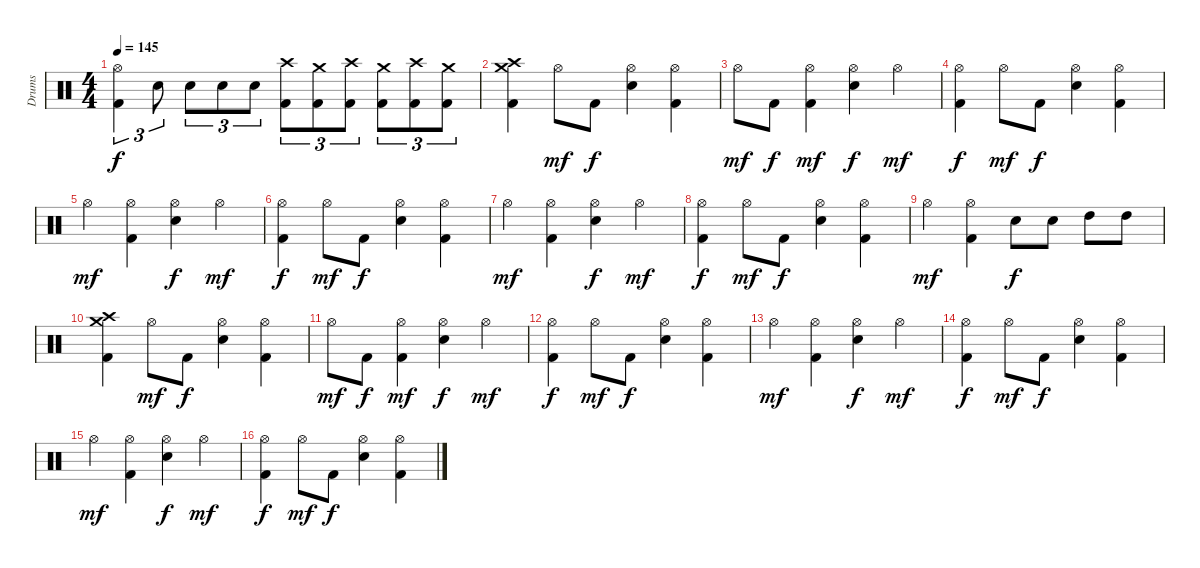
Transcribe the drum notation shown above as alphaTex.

\track ("Drums" "Drums") {instrument percussion}
\staff {score}
\articulation defaults
\ts (4 4)
\tempo 145
\clef neutral
\ks c
("Hi-Hat (open)" "Kick (hit) 2").4{tu (3 2) dy f} "Electric Snare (hit)".8{tu (3 2)} "Electric Snare (hit)".8{tu (3 2)} "Electric Snare (hit)".8{tu (3 2)} "Electric Snare (hit)".8{tu (3 2)} ("Crash high (hit)" "Kick (hit) 2").8{tu (3 2)} ("Crash medium (hit)" "Kick (hit) 2").8{tu (3 2)} ("Crash high (hit)" "Kick (hit) 2").8{tu (3 2)} ("Crash medium (hit)" "Kick (hit) 2").8{tu (3 2)} ("Crash high (hit)" "Kick (hit) 2").8{tu (3 2)} ("Crash medium (hit)" "Kick (hit) 2").8{tu (3 2)} |
("Crash high (hit)" "Crash medium (hit)" "Kick (hit) 2").4 "Hi-Hat (open)".8{dy mf} "Kick (hit) 2".8{dy f} ("Hi-Hat (open)" "Electric Snare (hit)").4 ("Hi-Hat (open)" "Kick (hit) 2").4 |
"Hi-Hat (open)".8{dy mf} "Kick (hit) 2".8{dy f} ("Hi-Hat (open)" "Kick (hit) 2").4{dy mf} ("Hi-Hat (open)" "Electric Snare (hit)").4{dy f} "Hi-Hat (open)".4{dy mf} |
("Hi-Hat (open)" "Kick (hit) 2").4{dy f} "Hi-Hat (open)".8{dy mf} "Kick (hit) 2".8{dy f} ("Hi-Hat (open)" "Electric Snare (hit)").4 ("Hi-Hat (open)" "Kick (hit) 2").4 |
"Hi-Hat (open)".4{dy mf} ("Hi-Hat (open)" "Kick (hit) 2").4 ("Hi-Hat (open)" "Electric Snare (hit)").4{dy f} "Hi-Hat (open)".4{dy mf} |
("Hi-Hat (open)" "Kick (hit) 2").4{dy f} "Hi-Hat (open)".8{dy mf} "Kick (hit) 2".8{dy f} ("Hi-Hat (open)" "Electric Snare (hit)").4 ("Hi-Hat (open)" "Kick (hit) 2").4 |
"Hi-Hat (open)".4{dy mf} ("Hi-Hat (open)" "Kick (hit) 2").4 ("Hi-Hat (open)" "Electric Snare (hit)").4{dy f} "Hi-Hat (open)".4{dy mf} |
("Hi-Hat (open)" "Kick (hit) 2").4{dy f} "Hi-Hat (open)".8{dy mf} "Kick (hit) 2".8{dy f} ("Hi-Hat (open)" "Electric Snare (hit)").4 ("Hi-Hat (open)" "Kick (hit) 2").4 |
"Hi-Hat (open)".4{dy mf} ("Hi-Hat (open)" "Kick (hit) 2").4 "Electric Snare (hit)".8{dy f} "Electric Snare (hit)".8 "High Tom (hit)".8 "High Tom (hit)".8 |
("Crash high (hit)" "Crash medium (hit)" "Kick (hit) 2").4 "Hi-Hat (open)".8{dy mf} "Kick (hit) 2".8{dy f} ("Hi-Hat (open)" "Electric Snare (hit)").4 ("Hi-Hat (open)" "Kick (hit) 2").4 |
"Hi-Hat (open)".8{dy mf} "Kick (hit) 2".8{dy f} ("Hi-Hat (open)" "Kick (hit) 2").4{dy mf} ("Hi-Hat (open)" "Electric Snare (hit)").4{dy f} "Hi-Hat (open)".4{dy mf} |
("Hi-Hat (open)" "Kick (hit) 2").4{dy f} "Hi-Hat (open)".8{dy mf} "Kick (hit) 2".8{dy f} ("Hi-Hat (open)" "Electric Snare (hit)").4 ("Hi-Hat (open)" "Kick (hit) 2").4 |
"Hi-Hat (open)".4{dy mf} ("Hi-Hat (open)" "Kick (hit) 2").4 ("Hi-Hat (open)" "Electric Snare (hit)").4{dy f} "Hi-Hat (open)".4{dy mf} |
("Hi-Hat (open)" "Kick (hit) 2").4{dy f} "Hi-Hat (open)".8{dy mf} "Kick (hit) 2".8{dy f} ("Hi-Hat (open)" "Electric Snare (hit)").4 ("Hi-Hat (open)" "Kick (hit) 2").4 |
"Hi-Hat (open)".4{dy mf} ("Hi-Hat (open)" "Kick (hit) 2").4 ("Hi-Hat (open)" "Electric Snare (hit)").4{dy f} "Hi-Hat (open)".4{dy mf} |
("Hi-Hat (open)" "Kick (hit) 2").4{dy f} "Hi-Hat (open)".8{dy mf} "Kick (hit) 2".8{dy f} ("Hi-Hat (open)" "Electric Snare (hit)").4 ("Hi-Hat (open)" "Kick (hit) 2").4
